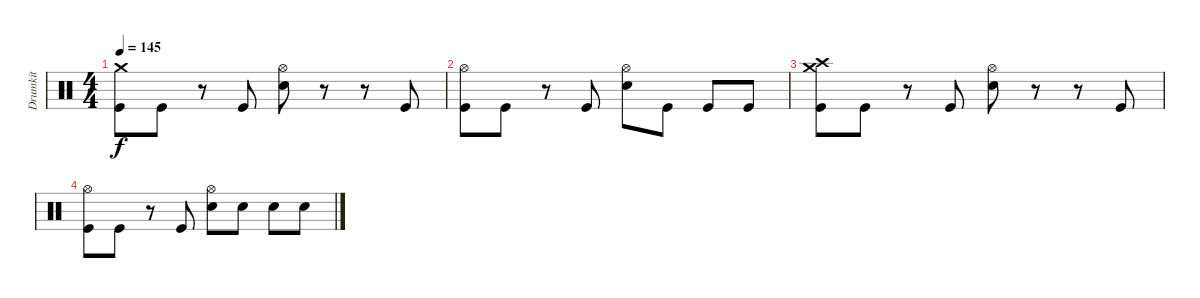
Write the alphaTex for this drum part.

\track ("Drumkit" "Drumkit") {instrument percussion}
\staff {score}
\articulation defaults
\ts (4 4)
\tempo 145
\clef neutral
\ks c
("Crash medium (hit)" "Kick (hit)").8{dy f} "Kick (hit)".8 r.8 "Kick (hit)".8 ("Hi-Hat (open)" "Electric Snare (hit)").8 r.8 r.8 "Kick (hit)".8 |
("Hi-Hat (open)" "Kick (hit)").8 "Kick (hit)".8 r.8 "Kick (hit)".8 ("Hi-Hat (open)" "Electric Snare (hit)").8 "Kick (hit)".8 "Kick (hit)".8 "Kick (hit)".8 |
("Crash medium (hit)" "Crash high (hit)" "Kick (hit)").8 "Kick (hit)".8 r.8 "Kick (hit)".8 ("Hi-Hat (open)" "Electric Snare (hit)").8 r.8 r.8 "Kick (hit)".8 |
("Hi-Hat (open)" "Kick (hit)").8 "Kick (hit)".8 r.8 "Kick (hit)".8 ("Hi-Hat (open)" "Electric Snare (hit)").8 "Electric Snare (hit)".8 "Electric Snare (hit)".8 "Electric Snare (hit)".8
